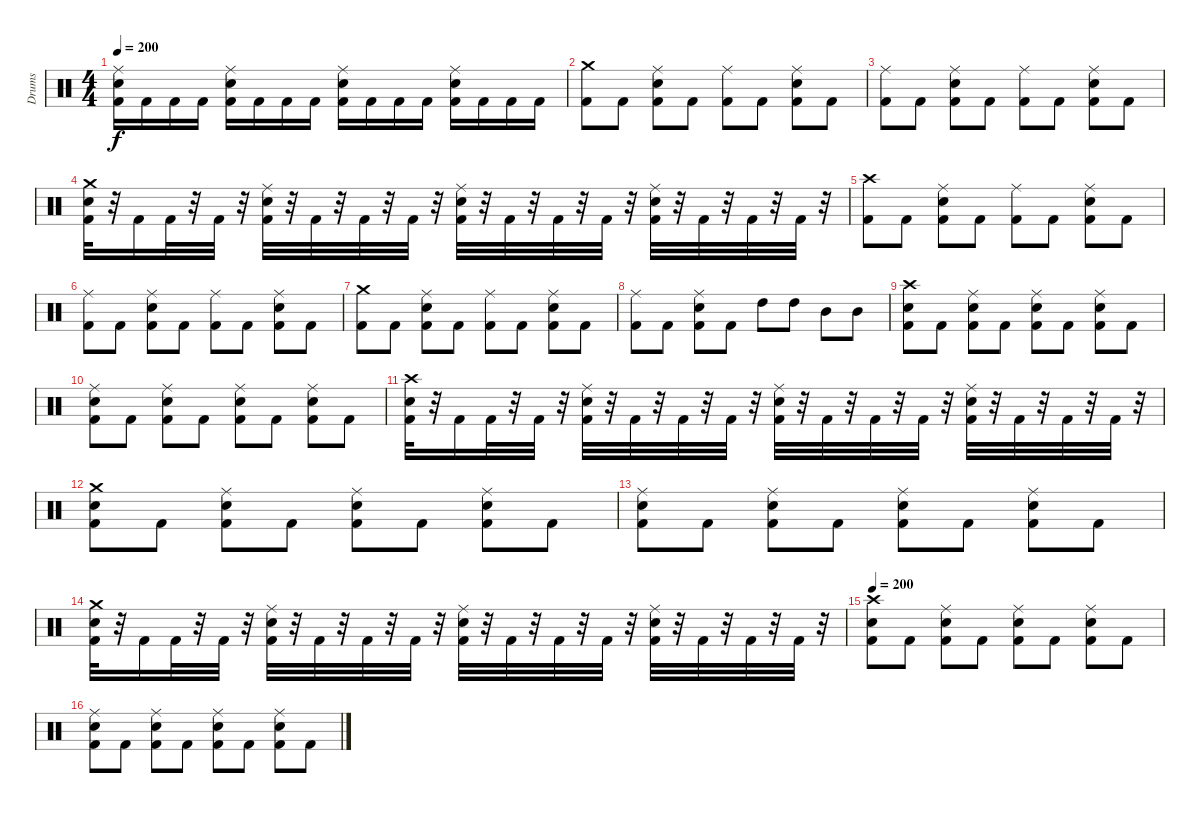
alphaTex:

\track ("Drums" "Drums") {instrument percussion}
\staff {score}
\articulation defaults
\ts (4 4)
\tempo 200
\clef neutral
\ks c
("Ride (middle)" "Kick (hit) 2" "Electric Snare (hit)").16{dy f} "Kick (hit) 2".16 "Kick (hit) 2".16 "Kick (hit) 2".16 ("Ride (middle)" "Kick (hit) 2" "Electric Snare (hit)").16 "Kick (hit) 2".16 "Kick (hit) 2".16 "Kick (hit) 2".16 ("Ride (middle)" "Kick (hit) 2" "Electric Snare (hit)").16 "Kick (hit) 2".16 "Kick (hit) 2".16 "Kick (hit) 2".16 ("Ride (middle)" "Kick (hit) 2" "Electric Snare (hit)").16 "Kick (hit) 2".16 "Kick (hit) 2".16 "Kick (hit) 2".16 |
("Crash medium (hit)" "Kick (hit) 2").8 "Kick (hit) 2".8 ("Ride (middle)" "Electric Snare (hit)" "Kick (hit) 2").8 "Kick (hit) 2".8 ("Ride (middle)" "Kick (hit) 2").8 "Kick (hit) 2".8 ("Ride (middle)" "Electric Snare (hit)" "Kick (hit) 2").8 "Kick (hit) 2".8 |
("Ride (middle)" "Kick (hit) 2").8 "Kick (hit) 2".8 ("Ride (middle)" "Electric Snare (hit)" "Kick (hit) 2").8 "Kick (hit) 2".8 ("Ride (middle)" "Kick (hit) 2").8 "Kick (hit) 2".8 ("Ride (middle)" "Electric Snare (hit)" "Kick (hit) 2").8 "Kick (hit) 2".8 |
("Crash medium (hit)" "Kick (hit) 2" "Electric Snare (hit)").32 r.32 "Kick (hit) 2".16 "Kick (hit) 2".32 r.32 "Kick (hit) 2".32 r.32 ("Ride (middle)" "Kick (hit) 2" "Electric Snare (hit)").32 r.32 "Kick (hit) 2".32 r.32 "Kick (hit) 2".32 r.32 "Kick (hit) 2".32 r.32 ("Ride (middle)" "Kick (hit) 2" "Electric Snare (hit)").32 r.32 "Kick (hit) 2".32 r.32 "Kick (hit) 2".32 r.32 "Kick (hit) 2".32 r.32 ("Ride (middle)" "Kick (hit) 2" "Electric Snare (hit)").32 r.32 "Kick (hit) 2".32 r.32 "Kick (hit) 2".32 r.32 "Kick (hit) 2".32 r.32 |
("Crash high (hit)" "Kick (hit) 2").8 "Kick (hit) 2".8 ("Ride (middle)" "Electric Snare (hit)" "Kick (hit) 2").8 "Kick (hit) 2".8 ("Ride (middle)" "Kick (hit) 2").8 "Kick (hit) 2".8 ("Ride (middle)" "Electric Snare (hit)" "Kick (hit) 2").8 "Kick (hit) 2".8 |
("Ride (middle)" "Kick (hit) 2").8 "Kick (hit) 2".8 ("Ride (middle)" "Electric Snare (hit)" "Kick (hit) 2").8 "Kick (hit) 2".8 ("Ride (middle)" "Kick (hit) 2").8 "Kick (hit) 2".8 ("Ride (middle)" "Electric Snare (hit)" "Kick (hit) 2").8 "Kick (hit) 2".8 |
("Crash medium (hit)" "Kick (hit) 2").8 "Kick (hit) 2".8 ("Ride (middle)" "Electric Snare (hit)" "Kick (hit) 2").8 "Kick (hit) 2".8 ("Ride (middle)" "Kick (hit) 2").8 "Kick (hit) 2".8 ("Ride (middle)" "Electric Snare (hit)" "Kick (hit) 2").8 "Kick (hit) 2".8 |
("Ride (middle)" "Kick (hit) 2").8 "Kick (hit) 2".8 ("Ride (middle)" "Electric Snare (hit)" "Kick (hit) 2").8 "Kick (hit) 2".8 "High Tom (hit)".8 "High Tom (hit)".8 "Mid Tom (hit)".8 "Mid Tom (hit)".8 |
("Crash high (hit)" "Kick (hit) 2" "Electric Snare (hit)").8 "Kick (hit) 2".8 ("Ride (middle)" "Electric Snare (hit)" "Kick (hit) 2").8 "Kick (hit) 2".8 ("Ride (middle)" "Electric Snare (hit)" "Kick (hit) 2").8 "Kick (hit) 2".8 ("Ride (middle)" "Electric Snare (hit)" "Kick (hit) 2").8 "Kick (hit) 2".8 |
("Ride (middle)" "Kick (hit) 2" "Electric Snare (hit)").8 "Kick (hit) 2".8 ("Ride (middle)" "Electric Snare (hit)" "Kick (hit) 2").8 "Kick (hit) 2".8 ("Ride (middle)" "Electric Snare (hit)" "Kick (hit) 2").8 "Kick (hit) 2".8 ("Ride (middle)" "Electric Snare (hit)" "Kick (hit) 2").8 "Kick (hit) 2".8 |
("Kick (hit) 2" "Crash high (hit)" "Electric Snare (hit)").32 r.32 "Kick (hit) 2".16 "Kick (hit) 2".32 r.32 "Kick (hit) 2".32 r.32 ("Kick (hit) 2" "Ride (middle)" "Electric Snare (hit)").32 r.32 "Kick (hit) 2".32 r.32 "Kick (hit) 2".32 r.32 "Kick (hit) 2".32 r.32 ("Kick (hit) 2" "Ride (middle)" "Electric Snare (hit)").32 r.32 "Kick (hit) 2".32 r.32 "Kick (hit) 2".32 r.32 "Kick (hit) 2".32 r.32 ("Kick (hit) 2" "Ride (middle)" "Electric Snare (hit)").32 r.32 "Kick (hit) 2".32 r.32 "Kick (hit) 2".32 r.32 "Kick (hit) 2".32 r.32 |
("Crash medium (hit)" "Kick (hit) 2" "Electric Snare (hit)").8 "Kick (hit) 2".8 ("Ride (middle)" "Electric Snare (hit)" "Kick (hit) 2").8 "Kick (hit) 2".8 ("Ride (middle)" "Electric Snare (hit)" "Kick (hit) 2").8 "Kick (hit) 2".8 ("Ride (middle)" "Electric Snare (hit)" "Kick (hit) 2").8 "Kick (hit) 2".8 |
("Ride (middle)" "Kick (hit) 2" "Electric Snare (hit)").8 "Kick (hit) 2".8 ("Ride (middle)" "Electric Snare (hit)" "Kick (hit) 2").8 "Kick (hit) 2".8 ("Ride (middle)" "Electric Snare (hit)" "Kick (hit) 2").8 "Kick (hit) 2".8 ("Ride (middle)" "Electric Snare (hit)" "Kick (hit) 2").8 "Kick (hit) 2".8 |
("Kick (hit) 2" "Electric Snare (hit)" "Crash medium (hit)").32 r.32 "Kick (hit) 2".16 "Kick (hit) 2".32 r.32 "Kick (hit) 2".32 r.32 ("Kick (hit) 2" "Electric Snare (hit)" "Ride (middle)").32 r.32 "Kick (hit) 2".32 r.32 "Kick (hit) 2".32 r.32 "Kick (hit) 2".32 r.32 ("Kick (hit) 2" "Electric Snare (hit)" "Ride (middle)").32 r.32 "Kick (hit) 2".32 r.32 "Kick (hit) 2".32 r.32 "Kick (hit) 2".32 r.32 ("Kick (hit) 2" "Electric Snare (hit)" "Ride (middle)").32 r.32 "Kick (hit) 2".32 r.32 "Kick (hit) 2".32 r.32 "Kick (hit) 2".32 r.32 |
\tempo 200
("Electric Snare (hit)" "Kick (hit) 2" "Crash high (hit)").8 "Kick (hit) 2".8 ("Ride (middle)" "Electric Snare (hit)" "Kick (hit) 2").8 "Kick (hit) 2".8 ("Kick (hit) 2" "Ride (middle)" "Electric Snare (hit)").8 "Kick (hit) 2".8 ("Kick (hit) 2" "Ride (middle)" "Electric Snare (hit)").8 "Kick (hit) 2".8 |
("Kick (hit) 2" "Electric Snare (hit)" "Ride (middle)").8 "Kick (hit) 2".8 ("Electric Snare (hit)" "Ride (middle)" "Kick (hit) 2").8 "Kick (hit) 2".8 ("Electric Snare (hit)" "Ride (middle)" "Kick (hit) 2").8 "Kick (hit) 2".8 ("Ride (middle)" "Kick (hit) 2" "Electric Snare (hit)").8 "Kick (hit) 2".8
